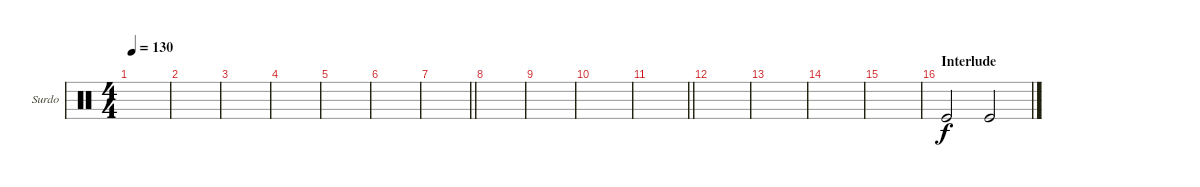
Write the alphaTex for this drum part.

\defaultSystemsLayout 4
\bracketExtendMode groupsimilarinstruments
\firstSystemTrackNameOrientation horizontal
\otherSystemsTrackNameOrientation horizontal
\track ("Surdo" "Surdo") {instrument percussion}
\staff {score}
\articulation defaults
\ts (4 4)
\tempo 130
\clef neutral
\scale
0.333333
\ks aminor
|
\scale
0.333333 |
\scale
0.333333 |
\scale
0.333333 |
\scale
0.333333 |
\scale
0.333333 |
\scale
0.333333
\barLineRight lightlight
|
\scale
0.333333 |
\scale
0.333333 |
\scale
0.333333 |
\scale
0.333333
\barLineRight lightlight
|
\scale
0.333333 |
\scale
0.333333 |
\scale
0.333333 |
\scale
0.333333 |
\section ("" "Interlude")
\scale
0.333333 "Kick (hit)".2 "Kick (hit)".2
